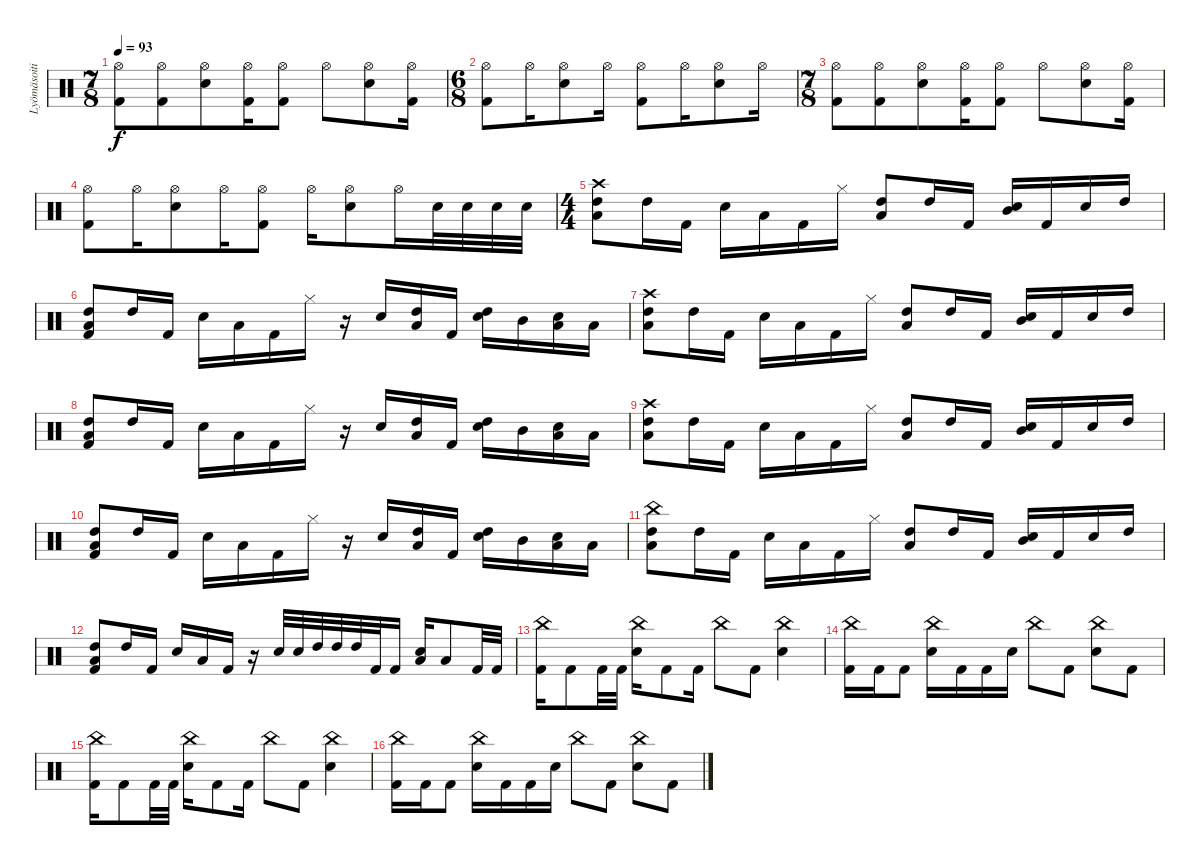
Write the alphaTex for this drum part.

\track ("Lyömäsoitin" "Lyömäsoiti") {instrument percussion}
\staff {score}
\articulation defaults
\ts (7 8)
\tempo 93
\clef neutral
\ks c
("Hi-Hat (open)" "Kick (hit) 2").8{dy f} ("Hi-Hat (open)" "Kick (hit) 2").8 ("Hi-Hat (open)" "Electric Snare (hit)").8 ("Hi-Hat (open)" "Kick (hit) 2").16 ("Hi-Hat (open)" "Kick (hit) 2").8 "Hi-Hat (open)".8 ("Hi-Hat (open)" "Electric Snare (hit)").8 ("Hi-Hat (open)" "Kick (hit) 2").16 |
\ts (6 8)
("Hi-Hat (open)" "Kick (hit) 2").8 "Hi-Hat (open)".16 ("Hi-Hat (open)" "Electric Snare (hit)").8 "Hi-Hat (open)".16 ("Hi-Hat (open)" "Kick (hit) 2").8 "Hi-Hat (open)".16 ("Hi-Hat (open)" "Electric Snare (hit)").8 "Hi-Hat (open)".16 |
\ts (7 8)
("Hi-Hat (open)" "Kick (hit) 2").8 ("Hi-Hat (open)" "Kick (hit) 2").8 ("Hi-Hat (open)" "Electric Snare (hit)").8 ("Hi-Hat (open)" "Kick (hit) 2").16 ("Hi-Hat (open)" "Kick (hit) 2").8 "Hi-Hat (open)".8 ("Hi-Hat (open)" "Electric Snare (hit)").8 ("Hi-Hat (open)" "Kick (hit) 2").16 |
("Hi-Hat (open)" "Kick (hit) 2").8 "Hi-Hat (open)".16 ("Hi-Hat (open)" "Electric Snare (hit)").8 "Hi-Hat (open)".16 ("Hi-Hat (open)" "Kick (hit) 2").8 "Hi-Hat (open)".16 ("Hi-Hat (open)" "Electric Snare (hit)").8 "Hi-Hat (open)".16 "Electric Snare (hit)".32 "Electric Snare (hit)".32 "Electric Snare (hit)".32 "Electric Snare (hit)".32 |
\ts (4 4)
("Crash high (hit)" "Low Floor Tom (hit)" "High Tom (hit)").8 "High Tom (hit)".16 "Kick (hit) 2".16 "Electric Snare (hit)".16 "Low Floor Tom (hit)".16 "Kick (hit) 2".16 "Hi-Hat (closed)".16 ("Low Floor Tom (hit)" "High Tom (hit)").8 "High Tom (hit)".16 "Kick (hit) 2".16 ("Electric Snare (hit)" "Mid Tom (hit)").16 "Kick (hit) 2".16 "Electric Snare (hit)".16 "High Tom (hit)".16 |
("Kick (hit) 2" "High Tom (hit)" "Low Floor Tom (hit)").8 "High Tom (hit)".16 "Kick (hit) 2".16 "Electric Snare (hit)".16 "Low Floor Tom (hit)".16 "Kick (hit) 2".16 "Hi-Hat (closed)".16 r.16 "Electric Snare (hit)".16 ("Low Floor Tom (hit)" "High Tom (hit)").16 "Kick (hit) 2".16 ("High Tom (hit)" "Electric Snare (hit)").16 "Mid Tom (hit)".16 ("Low Tom (hit)" "Electric Snare (hit)").16 "Low Floor Tom (hit)".16 |
("Crash high (hit)" "Low Floor Tom (hit)" "High Tom (hit)").8 "High Tom (hit)".16 "Kick (hit) 2".16 "Electric Snare (hit)".16 "Low Floor Tom (hit)".16 "Kick (hit) 2".16 "Hi-Hat (closed)".16 ("Low Floor Tom (hit)" "High Tom (hit)").8 "High Tom (hit)".16 "Kick (hit) 2".16 ("Electric Snare (hit)" "Mid Tom (hit)").16 "Kick (hit) 2".16 "Electric Snare (hit)".16 "High Tom (hit)".16 |
("Kick (hit) 2" "High Tom (hit)" "Low Floor Tom (hit)").8 "High Tom (hit)".16 "Kick (hit) 2".16 "Electric Snare (hit)".16 "Low Floor Tom (hit)".16 "Kick (hit) 2".16 "Hi-Hat (closed)".16 r.16 "Electric Snare (hit)".16 ("Low Floor Tom (hit)" "High Tom (hit)").16 "Kick (hit) 2".16 ("High Tom (hit)" "Electric Snare (hit)").16 "Mid Tom (hit)".16 ("Low Tom (hit)" "Electric Snare (hit)").16 "Low Floor Tom (hit)".16 |
("Crash high (hit)" "Low Floor Tom (hit)" "High Tom (hit)").8 "High Tom (hit)".16 "Kick (hit) 2".16 "Electric Snare (hit)".16 "Low Floor Tom (hit)".16 "Kick (hit) 2".16 "Hi-Hat (closed)".16 ("Low Floor Tom (hit)" "High Tom (hit)").8 "High Tom (hit)".16 "Kick (hit) 2".16 ("Electric Snare (hit)" "Mid Tom (hit)").16 "Kick (hit) 2".16 "Electric Snare (hit)".16 "High Tom (hit)".16 |
("Kick (hit) 2" "High Tom (hit)" "Low Floor Tom (hit)").8 "High Tom (hit)".16 "Kick (hit) 2".16 "Electric Snare (hit)".16 "Low Floor Tom (hit)".16 "Kick (hit) 2".16 "Hi-Hat (closed)".16 r.16 "Electric Snare (hit)".16 ("Low Floor Tom (hit)" "High Tom (hit)").16 "Kick (hit) 2".16 ("High Tom (hit)" "Electric Snare (hit)").16 "Mid Tom (hit)".16 ("Low Tom (hit)" "Electric Snare (hit)").16 "Low Floor Tom (hit)".16 |
("China (hit)" "Low Floor Tom (hit)" "High Tom (hit)").8 "High Tom (hit)".16 "Kick (hit) 2".16 "Electric Snare (hit)".16 "Low Floor Tom (hit)".16 "Kick (hit) 2".16 "Hi-Hat (closed)".16 ("Low Floor Tom (hit)" "High Tom (hit)").8 "High Tom (hit)".16 "Kick (hit) 2".16 ("Electric Snare (hit)" "Mid Tom (hit)").16 "Kick (hit) 2".16 "Electric Snare (hit)".16 "High Tom (hit)".16 |
("Kick (hit) 2" "High Tom (hit)" "Low Floor Tom (hit)").8 "High Tom (hit)".16 "Kick (hit) 2".16 "Electric Snare (hit)".16 "Low Floor Tom (hit)".16 "Kick (hit) 2".16 r.16 "Electric Snare (hit)".32 "Electric Snare (hit)".32 "High Tom (hit)".32 "High Tom (hit)".32 "High Tom (hit)".32 "Kick (hit) 2".32 "Kick (hit) 2".16 ("Low Floor Tom (hit)" "Electric Snare (hit)").16 "Low Floor Tom (hit)".8 "Kick (hit) 2".32 "Kick (hit) 2".32 |
("China (hit)" "Kick (hit) 2").16 "Kick (hit) 2".8 "Kick (hit) 2".32 "Kick (hit) 2".32 ("China (hit)" "Electric Snare (hit)").16 "Kick (hit) 2".8 "Kick (hit) 2".16 "China (hit)".8 "Kick (hit) 2".8 ("China (hit)" "Electric Snare (hit)").4 |
("China (hit)" "Kick (hit) 2").16 "Kick (hit) 2".16 "Kick (hit) 2".8 ("China (hit)" "Electric Snare (hit)").16 "Kick (hit) 2".16 "Kick (hit) 2".16 "Electric Snare (hit)".16 "China (hit)".8 "Kick (hit) 2".8 ("China (hit)" "Electric Snare (hit)").8 "Kick (hit) 2".8 |
("China (hit)" "Kick (hit) 2").16 "Kick (hit) 2".8 "Kick (hit) 2".32 "Kick (hit) 2".32 ("China (hit)" "Electric Snare (hit)").16 "Kick (hit) 2".8 "Kick (hit) 2".16 "China (hit)".8 "Kick (hit) 2".8 ("China (hit)" "Electric Snare (hit)").4 |
("China (hit)" "Kick (hit) 2").16 "Kick (hit) 2".16 "Kick (hit) 2".8 ("China (hit)" "Electric Snare (hit)").16 "Kick (hit) 2".16 "Kick (hit) 2".16 "Electric Snare (hit)".16 "China (hit)".8 "Kick (hit) 2".8 ("China (hit)" "Electric Snare (hit)").8 "Kick (hit) 2".8
